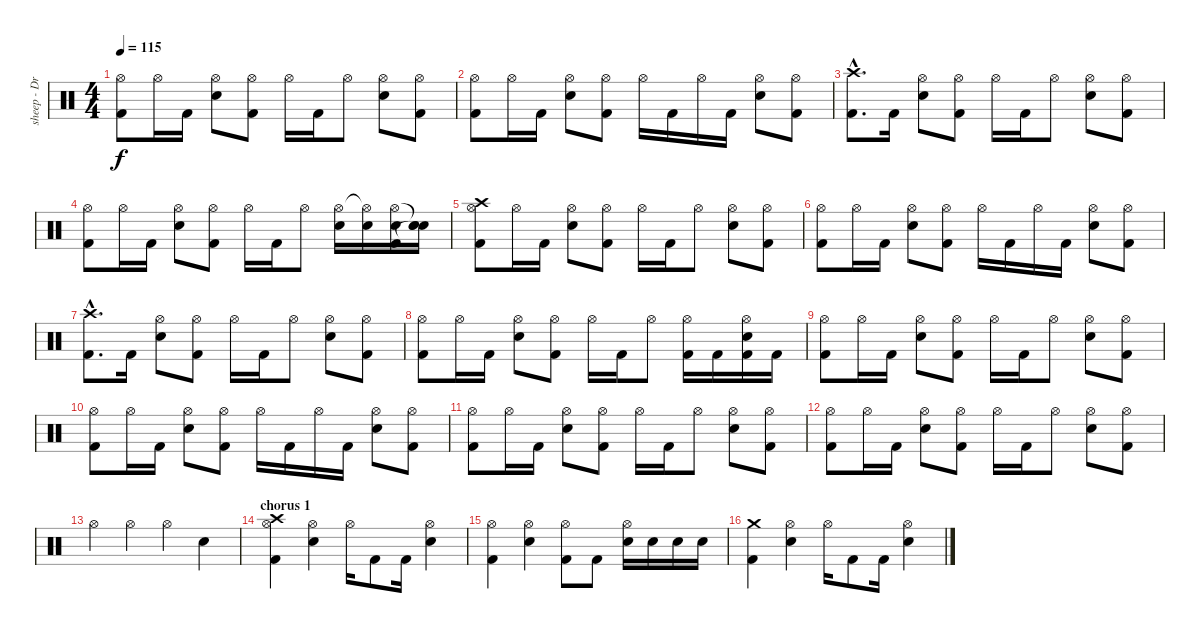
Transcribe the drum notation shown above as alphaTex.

\track ("sheep - Drum track (guide)" "sheep - Dr") {instrument percussion}
\staff {score}
\articulation defaults
\ts (4 4)
\tempo 115
\clef neutral
\ks c
("Hi-Hat (open)" "Kick (hit) 2").8{dy f} "Hi-Hat (open)".16 "Kick (hit) 2".16 ("Hi-Hat (open)" "Electric Snare (hit)").8 ("Hi-Hat (open)" "Kick (hit) 2").8 "Hi-Hat (open)".16 "Kick (hit) 2".16 "Hi-Hat (open)".8 ("Hi-Hat (open)" "Electric Snare (hit)").8 ("Hi-Hat (open)" "Kick (hit) 2").8 |
("Hi-Hat (open)" "Kick (hit) 2").8 "Hi-Hat (open)".16 "Kick (hit) 2".16 ("Hi-Hat (open)" "Electric Snare (hit)").8 ("Hi-Hat (open)" "Kick (hit) 2").8 "Hi-Hat (open)".16 "Kick (hit) 2".16 "Hi-Hat (open)".16 "Kick (hit) 2".16 ("Hi-Hat (open)" "Electric Snare (hit)").8 ("Hi-Hat (open)" "Kick (hit) 2").8 |
("Crash high (hit)"{hac} "Kick (hit) 2"{hac}).8{d} "Kick (hit) 2".16 ("Hi-Hat (open)" "Electric Snare (hit)").8 ("Hi-Hat (open)" "Kick (hit) 2").8 "Hi-Hat (open)".16 "Kick (hit) 2".16 "Hi-Hat (open)".8 ("Hi-Hat (open)" "Electric Snare (hit)").8 ("Hi-Hat (open)" "Kick (hit) 2").8 |
("Hi-Hat (open)" "Kick (hit) 2").8 "Hi-Hat (open)".16 "Kick (hit) 2".16 ("Hi-Hat (open)" "Electric Snare (hit)").8 ("Hi-Hat (open)" "Kick (hit) 2").8 "Hi-Hat (open)".16 "Kick (hit) 2".16 "Hi-Hat (open)".8 ("Hi-Hat (open)" "Electric Snare (hit)").16 ("Hi-Hat (open)"{t} "Electric Snare (hit)").16 ("Hi-Hat (open)" "Electric Snare (hit)" "Kick (hit) 2").16 ("Snare (hit)"{t} "Electric Snare (hit)" "Snare (hit)"{t}).16 |
("Hi-Hat (open)" "Crash high (hit)" "Kick (hit) 2").8 "Hi-Hat (open)".16 "Kick (hit) 2".16 ("Hi-Hat (open)" "Electric Snare (hit)").8 ("Hi-Hat (open)" "Kick (hit) 2").8 "Hi-Hat (open)".16 "Kick (hit) 2".16 "Hi-Hat (open)".8 ("Hi-Hat (open)" "Electric Snare (hit)").8 ("Hi-Hat (open)" "Kick (hit) 2").8 |
("Hi-Hat (open)" "Kick (hit) 2").8 "Hi-Hat (open)".16 "Kick (hit) 2".16 ("Hi-Hat (open)" "Electric Snare (hit)").8 ("Hi-Hat (open)" "Kick (hit) 2").8 "Hi-Hat (open)".16 "Kick (hit) 2".16 "Hi-Hat (open)".16 "Kick (hit) 2".16 ("Hi-Hat (open)" "Electric Snare (hit)").8 ("Hi-Hat (open)" "Kick (hit) 2").8 |
("Crash high (hit)"{hac} "Kick (hit) 2"{hac}).8{d} "Kick (hit) 2".16 ("Hi-Hat (open)" "Electric Snare (hit)").8 ("Hi-Hat (open)" "Kick (hit) 2").8 "Hi-Hat (open)".16 "Kick (hit) 2".16 "Hi-Hat (open)".8 ("Hi-Hat (open)" "Electric Snare (hit)").8 ("Hi-Hat (open)" "Kick (hit) 2").8 |
("Hi-Hat (open)" "Kick (hit) 2").8 "Hi-Hat (open)".16 "Kick (hit) 2".16 ("Hi-Hat (open)" "Electric Snare (hit)").8 ("Hi-Hat (open)" "Kick (hit) 2").8 "Hi-Hat (open)".16 "Kick (hit) 2".16 "Hi-Hat (open)".8 ("Hi-Hat (open)" "Kick (hit) 2").16 "Kick (hit) 2".16 ("Hi-Hat (open)" "Electric Snare (hit)" "Kick (hit) 2").16 "Kick (hit) 2".16 |
("Hi-Hat (open)" "Kick (hit) 2").8 "Hi-Hat (open)".16 "Kick (hit) 2".16 ("Hi-Hat (open)" "Electric Snare (hit)").8 ("Hi-Hat (open)" "Kick (hit) 2").8 "Hi-Hat (open)".16 "Kick (hit) 2".16 "Hi-Hat (open)".8 ("Hi-Hat (open)" "Electric Snare (hit)").8 ("Hi-Hat (open)" "Kick (hit) 2").8 |
("Hi-Hat (open)" "Kick (hit) 2").8 "Hi-Hat (open)".16 "Kick (hit) 2".16 ("Hi-Hat (open)" "Electric Snare (hit)").8 ("Hi-Hat (open)" "Kick (hit) 2").8 "Hi-Hat (open)".16 "Kick (hit) 2".16 "Hi-Hat (open)".16 "Kick (hit) 2".16 ("Hi-Hat (open)" "Electric Snare (hit)").8 ("Hi-Hat (open)" "Kick (hit) 2").8 |
("Hi-Hat (open)" "Kick (hit) 2").8 "Hi-Hat (open)".16 "Kick (hit) 2".16 ("Hi-Hat (open)" "Electric Snare (hit)").8 ("Hi-Hat (open)" "Kick (hit) 2").8 "Hi-Hat (open)".16 "Kick (hit) 2".16 "Hi-Hat (open)".8 ("Hi-Hat (open)" "Electric Snare (hit)").8 ("Hi-Hat (open)" "Kick (hit) 2").8 |
("Hi-Hat (open)" "Kick (hit) 2").8 "Hi-Hat (open)".16 "Kick (hit) 2".16 ("Hi-Hat (open)" "Electric Snare (hit)").8 ("Hi-Hat (open)" "Kick (hit) 2").8 "Hi-Hat (open)".16 "Kick (hit) 2".16 "Hi-Hat (open)".8 ("Hi-Hat (open)" "Electric Snare (hit)").8 ("Hi-Hat (open)" "Kick (hit) 2").8 |
"Hi-Hat (open)".4 "Hi-Hat (open)".4 "Hi-Hat (open)".4 "Electric Snare (hit)".4 |
\section ("" "chorus 1")
("Crash high (hit)" "Hi-Hat (open)" "Kick (hit) 2").4 ("Hi-Hat (open)" "Electric Snare (hit)").4 "Hi-Hat (open)".16 "Kick (hit) 2".8 "Kick (hit) 2".16 ("Hi-Hat (open)" "Electric Snare (hit)").4 |
("Hi-Hat (open)" "Kick (hit) 2").4 ("Hi-Hat (open)" "Electric Snare (hit)").4 ("Hi-Hat (open)" "Kick (hit) 2").8 "Kick (hit) 2".8 ("Hi-Hat (open)" "Electric Snare (hit)").16 "Electric Snare (hit)".16 "Electric Snare (hit)".16 "Electric Snare (hit)".16 |
("Crash medium (hit)" "Kick (hit) 2").4 ("Hi-Hat (open)" "Electric Snare (hit)").4 "Hi-Hat (open)".16 "Kick (hit) 2".8 "Kick (hit) 2".16 ("Hi-Hat (open)" "Electric Snare (hit)").4
